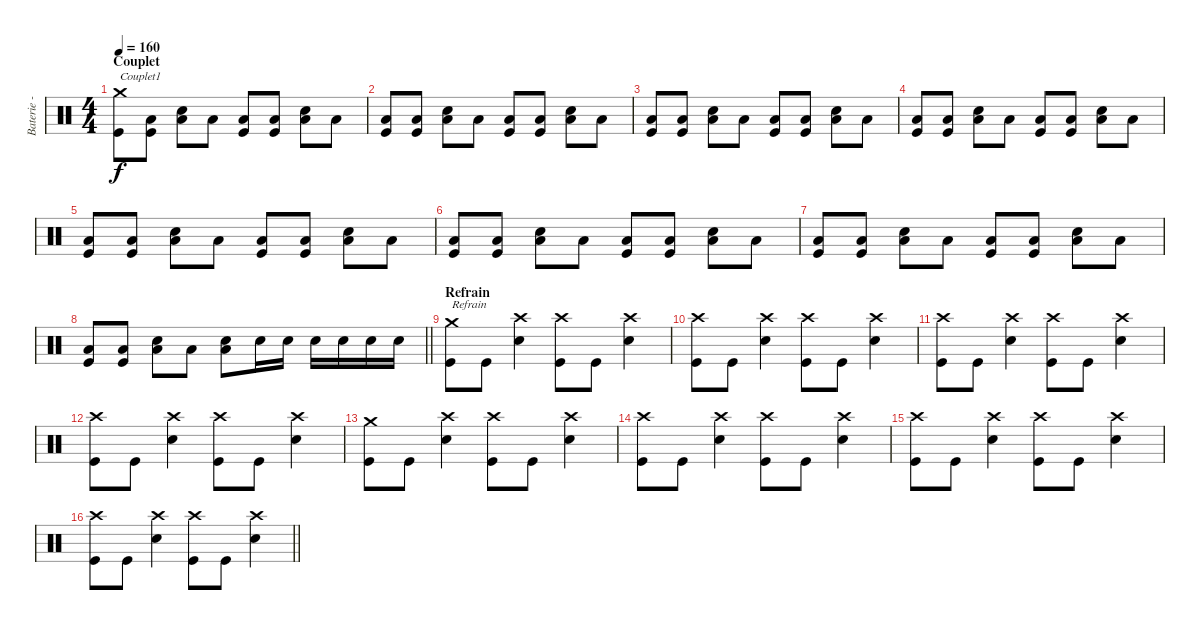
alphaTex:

\track ("Baterie - Alex" "Baterie - ") {instrument percussion}
\staff {score}
\articulation defaults
\ts (4 4)
\section ("" "Couplet")
\tempo 160
\clef neutral
\ks c
("Crash medium (hit)" "Kick (hit)").8{txt "Couplet1" dy f} ("Low Floor Tom (hit)" "Kick (hit)").8 ("Low Floor Tom (hit)" "Electric Snare (hit)").8 "Low Floor Tom (hit)".8 ("Low Floor Tom (hit)" "Kick (hit)").8 ("Low Floor Tom (hit)" "Kick (hit)").8 ("Low Floor Tom (hit)" "Electric Snare (hit)").8 "Low Floor Tom (hit)".8 |
("Low Floor Tom (hit)" "Kick (hit)").8 ("Low Floor Tom (hit)" "Kick (hit)").8 ("Low Floor Tom (hit)" "Electric Snare (hit)").8 "Low Floor Tom (hit)".8 ("Low Floor Tom (hit)" "Kick (hit)").8 ("Low Floor Tom (hit)" "Kick (hit)").8 ("Low Floor Tom (hit)" "Electric Snare (hit)").8 "Low Floor Tom (hit)".8 |
("Low Floor Tom (hit)" "Kick (hit)").8 ("Low Floor Tom (hit)" "Kick (hit)").8 ("Low Floor Tom (hit)" "Electric Snare (hit)").8 "Low Floor Tom (hit)".8 ("Low Floor Tom (hit)" "Kick (hit)").8 ("Low Floor Tom (hit)" "Kick (hit)").8 ("Low Floor Tom (hit)" "Electric Snare (hit)").8 "Low Floor Tom (hit)".8 |
("Low Floor Tom (hit)" "Kick (hit)").8 ("Low Floor Tom (hit)" "Kick (hit)").8 ("Low Floor Tom (hit)" "Electric Snare (hit)").8 "Low Floor Tom (hit)".8 ("Low Floor Tom (hit)" "Kick (hit)").8 ("Low Floor Tom (hit)" "Kick (hit)").8 ("Low Floor Tom (hit)" "Electric Snare (hit)").8 "Low Floor Tom (hit)".8 |
("Low Floor Tom (hit)" "Kick (hit)").8 ("Low Floor Tom (hit)" "Kick (hit)").8 ("Low Floor Tom (hit)" "Electric Snare (hit)").8 "Low Floor Tom (hit)".8 ("Low Floor Tom (hit)" "Kick (hit)").8 ("Low Floor Tom (hit)" "Kick (hit)").8 ("Low Floor Tom (hit)" "Electric Snare (hit)").8 "Low Floor Tom (hit)".8 |
("Low Floor Tom (hit)" "Kick (hit)").8 ("Low Floor Tom (hit)" "Kick (hit)").8 ("Low Floor Tom (hit)" "Electric Snare (hit)").8 "Low Floor Tom (hit)".8 ("Low Floor Tom (hit)" "Kick (hit)").8 ("Low Floor Tom (hit)" "Kick (hit)").8 ("Low Floor Tom (hit)" "Electric Snare (hit)").8 "Low Floor Tom (hit)".8 |
("Low Floor Tom (hit)" "Kick (hit)").8 ("Low Floor Tom (hit)" "Kick (hit)").8 ("Low Floor Tom (hit)" "Electric Snare (hit)").8 "Low Floor Tom (hit)".8 ("Low Floor Tom (hit)" "Kick (hit)").8 ("Low Floor Tom (hit)" "Kick (hit)").8 ("Low Floor Tom (hit)" "Electric Snare (hit)").8 "Low Floor Tom (hit)".8 |
\barLineRight lightlight
("Low Floor Tom (hit)" "Kick (hit)").8 ("Low Floor Tom (hit)" "Kick (hit)").8 ("Low Floor Tom (hit)" "Electric Snare (hit)").8 "Low Floor Tom (hit)".8 ("Low Floor Tom (hit)" "Electric Snare (hit)").8 "Electric Snare (hit)".16 "Electric Snare (hit)".16 "Electric Snare (hit)".16 "Electric Snare (hit)".16 "Electric Snare (hit)".16 "Electric Snare (hit)".16 |
\section ("" "Refrain")
("Crash medium (hit)" "Kick (hit)").8{txt "Refrain"} "Kick (hit)".8 ("Crash high (hit)" "Electric Snare (hit)").4 ("Crash high (hit)" "Kick (hit)").8 "Kick (hit)".8 ("Crash high (hit)" "Electric Snare (hit)").4 |
("Crash high (hit)" "Kick (hit)").8 "Kick (hit)".8 ("Crash high (hit)" "Electric Snare (hit)").4 ("Crash high (hit)" "Kick (hit)").8 "Kick (hit)".8 ("Crash high (hit)" "Electric Snare (hit)").4 |
("Crash high (hit)" "Kick (hit)").8 "Kick (hit)".8 ("Crash high (hit)" "Electric Snare (hit)").4 ("Crash high (hit)" "Kick (hit)").8 "Kick (hit)".8 ("Crash high (hit)" "Electric Snare (hit)").4 |
("Crash high (hit)" "Kick (hit)").8 "Kick (hit)".8 ("Crash high (hit)" "Electric Snare (hit)").4 ("Crash high (hit)" "Kick (hit)").8 "Kick (hit)".8 ("Crash high (hit)" "Electric Snare (hit)").4 |
("Crash medium (hit)" "Kick (hit)").8 "Kick (hit)".8 ("Crash high (hit)" "Electric Snare (hit)").4 ("Crash high (hit)" "Kick (hit)").8 "Kick (hit)".8 ("Crash high (hit)" "Electric Snare (hit)").4 |
("Crash high (hit)" "Kick (hit)").8 "Kick (hit)".8 ("Crash high (hit)" "Electric Snare (hit)").4 ("Crash high (hit)" "Kick (hit)").8 "Kick (hit)".8 ("Crash high (hit)" "Electric Snare (hit)").4 |
("Crash high (hit)" "Kick (hit)").8 "Kick (hit)".8 ("Crash high (hit)" "Electric Snare (hit)").4 ("Crash high (hit)" "Kick (hit)").8 "Kick (hit)".8 ("Crash high (hit)" "Electric Snare (hit)").4 |
\barLineRight lightlight
("Crash high (hit)" "Kick (hit)").8 "Kick (hit)".8 ("Crash high (hit)" "Electric Snare (hit)").4 ("Crash high (hit)" "Kick (hit)").8 "Kick (hit)".8 ("Crash high (hit)" "Electric Snare (hit)").4
